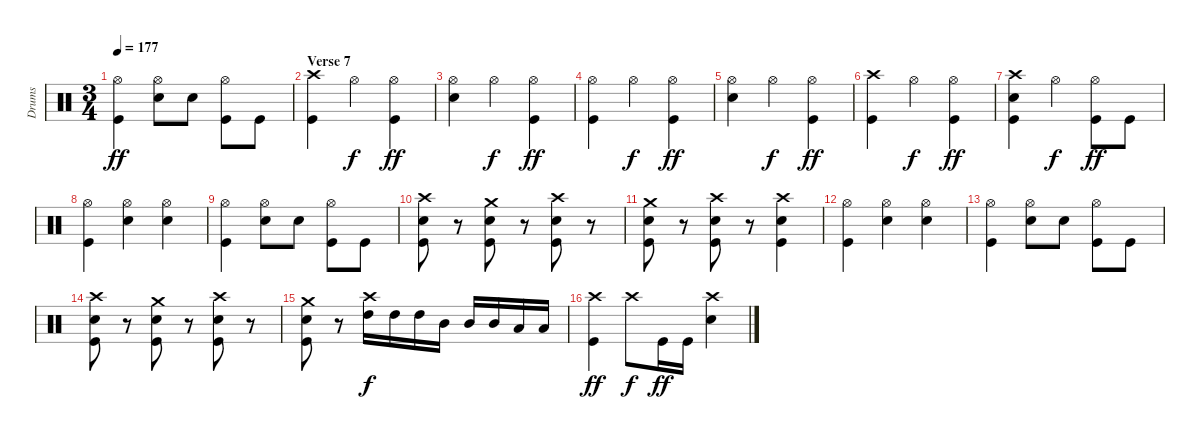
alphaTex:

\track ("Drums" "Drums") {instrument percussion}
\staff {score}
\articulation defaults
\ts (3 4)
\tempo 177
\clef neutral
\ks c
("Hi-Hat (open)" "Kick (hit)").4{dy ff} ("Hi-Hat (open)" "Electric Snare (hit)").8 "Electric Snare (hit)".8 ("Hi-Hat (open)" "Kick (hit)").8 "Kick (hit)".8 |
\section ("" "Verse 7")
("Crash high (hit)" "Kick (hit)").4 "Hi-Hat (open)".4{dy f} ("Hi-Hat (open)" "Kick (hit)").4{dy ff} |
("Hi-Hat (open)" "Electric Snare (hit)").4 "Hi-Hat (open)".4{dy f} ("Hi-Hat (open)" "Kick (hit)").4{dy ff} |
("Hi-Hat (open)" "Kick (hit)").4 "Hi-Hat (open)".4{dy f} ("Hi-Hat (open)" "Kick (hit)").4{dy ff} |
("Hi-Hat (open)" "Electric Snare (hit)").4 "Hi-Hat (open)".4{dy f} ("Hi-Hat (open)" "Kick (hit)").4{dy ff} |
("Crash high (hit)" "Kick (hit)").4 "Hi-Hat (open)".4{dy f} ("Hi-Hat (open)" "Kick (hit)").4{dy ff} |
("Crash high (hit)" "Electric Snare (hit)" "Kick (hit)").4 "Hi-Hat (open)".4{dy f} ("Hi-Hat (open)" "Kick (hit)").8{dy ff} "Kick (hit)".8 |
("Hi-Hat (open)" "Kick (hit)").4 ("Hi-Hat (open)" "Electric Snare (hit)").4 ("Hi-Hat (open)" "Electric Snare (hit)").4 |
("Hi-Hat (open)" "Kick (hit)").4 ("Hi-Hat (open)" "Electric Snare (hit)").8 "Electric Snare (hit)".8 ("Hi-Hat (open)" "Kick (hit)").8 "Kick (hit)".8 |
("Crash high (hit)" "Electric Snare (hit)" "Kick (hit)").8 r.8{volume 0} ("Crash medium (hit)" "Electric Snare (hit)" "Kick (hit)").8{volume 16} r.8{volume 0} ("Crash high (hit)" "Electric Snare (hit)" "Kick (hit)").8{volume 16} r.8{volume 0} |
("Crash medium (hit)" "Electric Snare (hit)" "Kick (hit)").8{volume 16} r.8{volume 0} ("Crash high (hit)" "Electric Snare (hit)" "Kick (hit)").8{volume 16} r.8{volume 0} ("Crash high (hit)" "Electric Snare (hit)" "Kick (hit)").4{volume 16} |
("Hi-Hat (open)" "Kick (hit)").4 ("Hi-Hat (open)" "Electric Snare (hit)").4 ("Hi-Hat (open)" "Electric Snare (hit)").4 |
("Hi-Hat (open)" "Kick (hit)").4 ("Hi-Hat (open)" "Electric Snare (hit)").8 "Electric Snare (hit)".8 ("Hi-Hat (open)" "Kick (hit)").8 "Kick (hit)".8 |
("Crash high (hit)" "Electric Snare (hit)" "Kick (hit)").8 r.8{volume 0} ("Crash medium (hit)" "Electric Snare (hit)" "Kick (hit)").8{volume 16} r.8{volume 0} ("Crash high (hit)" "Electric Snare (hit)" "Kick (hit)").8{volume 16} r.8{volume 0} |
("Crash medium (hit)" "Electric Snare (hit)" "Kick (hit)").8{volume 16} r.8{volume 0} ("Crash high (hit)" "High Tom (hit)").16{dy f volume 16} "High Tom (hit)".16 "High Tom (hit)".16 "Mid Tom (hit)".16 "Mid Tom (hit)".16 "Mid Tom (hit)".16 "Low Tom (hit)".16 "Low Tom (hit)".16 |
("Crash high (hit)" "Kick (hit)").4{dy ff} "Crash high (hit)".8{dy f} "Kick (hit)".16{dy ff} "Kick (hit)".16 ("Crash high (hit)" "Electric Snare (hit)").4
